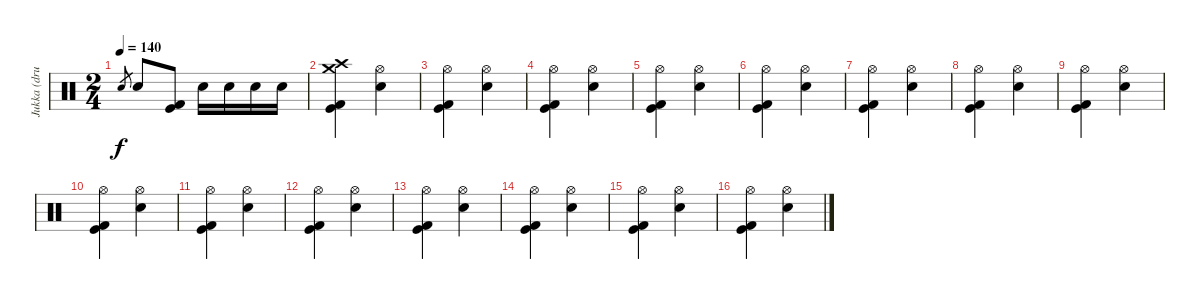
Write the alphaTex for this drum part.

\track ("Jukka (drums)" "Jukka (dru") {instrument percussion}
\staff {score}
\articulation defaults
\ts (2 4)
\tempo 140
\clef neutral
\ks c "Electric Snare (hit)".8{gr dy f} "Electric Snare (hit)".8
("Kick (hit)" "Kick (hit) 2").8 "Electric Snare (hit)".16 "Electric Snare (hit)".16 "Electric Snare (hit)".16 "Electric Snare (hit)".16 |
("Kick (hit)" "Kick (hit) 2" "Crash high (hit)" "Crash medium (hit)").4 ("Electric Snare (hit)" "Hi-Hat (open)").4 |
("Kick (hit)" "Kick (hit) 2" "Hi-Hat (open)").4 ("Electric Snare (hit)" "Hi-Hat (open)").4 |
("Kick (hit)" "Kick (hit) 2" "Hi-Hat (open)").4 ("Electric Snare (hit)" "Hi-Hat (open)").4 |
("Kick (hit)" "Kick (hit) 2" "Hi-Hat (open)").4 ("Electric Snare (hit)" "Hi-Hat (open)").4 |
("Kick (hit)" "Kick (hit) 2" "Hi-Hat (open)").4 ("Electric Snare (hit)" "Hi-Hat (open)").4 |
("Kick (hit)" "Kick (hit) 2" "Hi-Hat (open)").4 ("Electric Snare (hit)" "Hi-Hat (open)").4 |
("Kick (hit)" "Kick (hit) 2" "Hi-Hat (open)").4 ("Electric Snare (hit)" "Hi-Hat (open)").4 |
("Kick (hit)" "Kick (hit) 2" "Hi-Hat (open)").4 ("Electric Snare (hit)" "Hi-Hat (open)").4 |
("Kick (hit)" "Kick (hit) 2" "Hi-Hat (open)").4 ("Electric Snare (hit)" "Hi-Hat (open)").4 |
("Kick (hit)" "Kick (hit) 2" "Hi-Hat (open)").4 ("Electric Snare (hit)" "Hi-Hat (open)").4 |
("Kick (hit)" "Kick (hit) 2" "Hi-Hat (open)").4 ("Electric Snare (hit)" "Hi-Hat (open)").4 |
("Kick (hit)" "Kick (hit) 2" "Hi-Hat (open)").4 ("Electric Snare (hit)" "Hi-Hat (open)").4 |
("Kick (hit)" "Kick (hit) 2" "Hi-Hat (open)").4 ("Electric Snare (hit)" "Hi-Hat (open)").4 |
("Kick (hit)" "Kick (hit) 2" "Hi-Hat (open)").4 ("Electric Snare (hit)" "Hi-Hat (open)").4 |
("Kick (hit)" "Kick (hit) 2" "Hi-Hat (open)").4 ("Electric Snare (hit)" "Hi-Hat (open)").4
